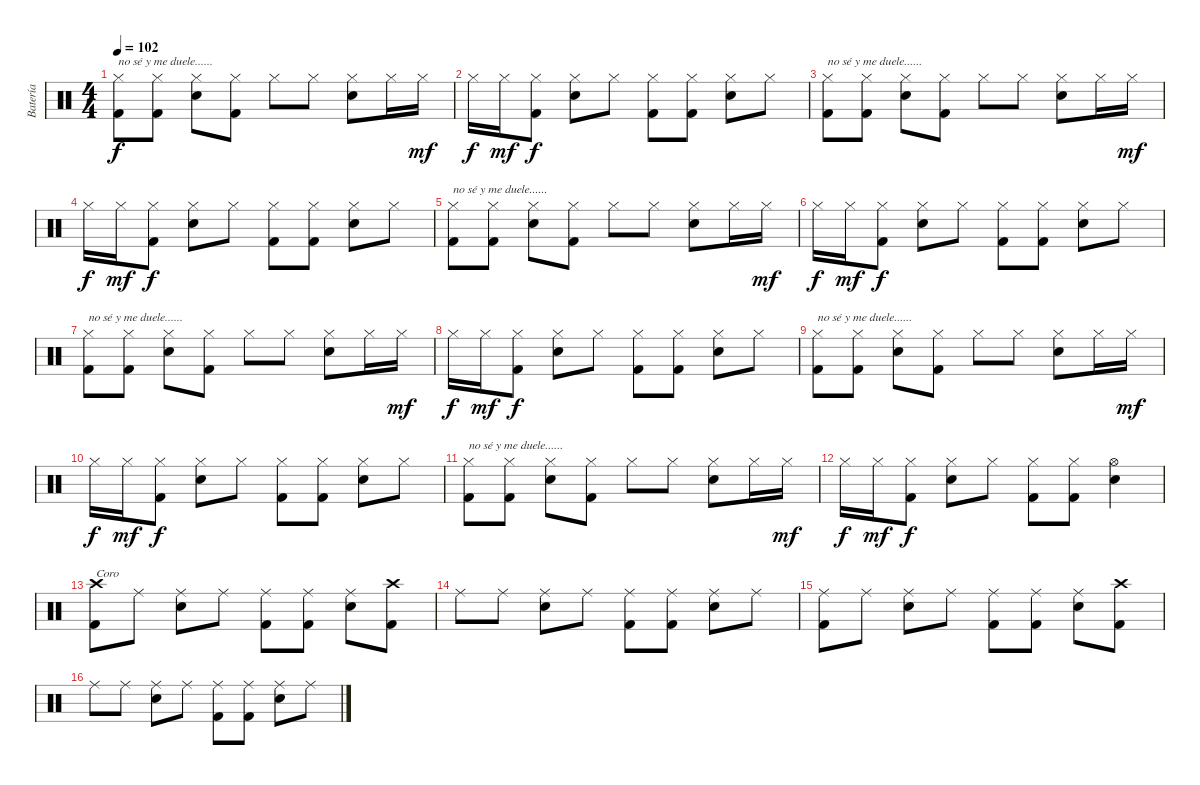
\track ("Batería" "Batería") {instrument percussion}
\staff {score}
\articulation defaults
\ts (4 4)
\tempo 102
\clef neutral
\ks c
("Hi-Hat (closed)" "Kick (hit) 2").8{txt "no sé y me duele......" dy f} ("Hi-Hat (closed)" "Kick (hit) 2").8 ("Hi-Hat (closed)" "Snare (hit) 2").8 ("Hi-Hat (closed)" "Kick (hit) 2").8 "Hi-Hat (closed)".8 "Hi-Hat (closed)".8 ("Hi-Hat (closed)" "Snare (hit) 2").8 "Hi-Hat (closed)".16 "Hi-Hat (closed)".16{dy mf} |
"Hi-Hat (closed)".16{dy f} "Hi-Hat (closed)".16{dy mf} ("Hi-Hat (closed)" "Kick (hit) 2").8{dy f} ("Hi-Hat (closed)" "Snare (hit) 2").8 "Hi-Hat (closed)".8 ("Hi-Hat (closed)" "Kick (hit) 2").8 ("Hi-Hat (closed)" "Kick (hit) 2").8 ("Hi-Hat (closed)" "Snare (hit) 2").8 "Hi-Hat (closed)".8 |
("Hi-Hat (closed)" "Kick (hit) 2").8{txt "no sé y me duele......"} ("Hi-Hat (closed)" "Kick (hit) 2").8 ("Hi-Hat (closed)" "Snare (hit) 2").8 ("Hi-Hat (closed)" "Kick (hit) 2").8 "Hi-Hat (closed)".8 "Hi-Hat (closed)".8 ("Hi-Hat (closed)" "Snare (hit) 2").8 "Hi-Hat (closed)".16 "Hi-Hat (closed)".16{dy mf} |
"Hi-Hat (closed)".16{dy f} "Hi-Hat (closed)".16{dy mf} ("Hi-Hat (closed)" "Kick (hit) 2").8{dy f} ("Hi-Hat (closed)" "Snare (hit) 2").8 "Hi-Hat (closed)".8 ("Hi-Hat (closed)" "Kick (hit) 2").8 ("Hi-Hat (closed)" "Kick (hit) 2").8 ("Hi-Hat (closed)" "Snare (hit) 2").8 "Hi-Hat (closed)".8 |
("Hi-Hat (closed)" "Kick (hit) 2").8{txt "no sé y me duele......"} ("Hi-Hat (closed)" "Kick (hit) 2").8 ("Hi-Hat (closed)" "Snare (hit) 2").8 ("Hi-Hat (closed)" "Kick (hit) 2").8 "Hi-Hat (closed)".8 "Hi-Hat (closed)".8 ("Hi-Hat (closed)" "Snare (hit) 2").8 "Hi-Hat (closed)".16 "Hi-Hat (closed)".16{dy mf} |
"Hi-Hat (closed)".16{dy f} "Hi-Hat (closed)".16{dy mf} ("Hi-Hat (closed)" "Kick (hit) 2").8{dy f} ("Hi-Hat (closed)" "Snare (hit) 2").8 "Hi-Hat (closed)".8 ("Hi-Hat (closed)" "Kick (hit) 2").8 ("Hi-Hat (closed)" "Kick (hit) 2").8 ("Hi-Hat (closed)" "Snare (hit) 2").8 "Hi-Hat (closed)".8 |
("Hi-Hat (closed)" "Kick (hit) 2").8{txt "no sé y me duele......"} ("Hi-Hat (closed)" "Kick (hit) 2").8 ("Hi-Hat (closed)" "Snare (hit) 2").8 ("Hi-Hat (closed)" "Kick (hit) 2").8 "Hi-Hat (closed)".8 "Hi-Hat (closed)".8 ("Hi-Hat (closed)" "Snare (hit) 2").8 "Hi-Hat (closed)".16 "Hi-Hat (closed)".16{dy mf} |
"Hi-Hat (closed)".16{dy f} "Hi-Hat (closed)".16{dy mf} ("Hi-Hat (closed)" "Kick (hit) 2").8{dy f} ("Hi-Hat (closed)" "Snare (hit) 2").8 "Hi-Hat (closed)".8 ("Hi-Hat (closed)" "Kick (hit) 2").8 ("Hi-Hat (closed)" "Kick (hit) 2").8 ("Hi-Hat (closed)" "Snare (hit) 2").8 "Hi-Hat (closed)".8 |
("Hi-Hat (closed)" "Kick (hit) 2").8{txt "no sé y me duele......"} ("Hi-Hat (closed)" "Kick (hit) 2").8 ("Hi-Hat (closed)" "Snare (hit) 2").8 ("Hi-Hat (closed)" "Kick (hit) 2").8 "Hi-Hat (closed)".8 "Hi-Hat (closed)".8 ("Hi-Hat (closed)" "Snare (hit) 2").8 "Hi-Hat (closed)".16 "Hi-Hat (closed)".16{dy mf} |
"Hi-Hat (closed)".16{dy f} "Hi-Hat (closed)".16{dy mf} ("Hi-Hat (closed)" "Kick (hit) 2").8{dy f} ("Hi-Hat (closed)" "Snare (hit) 2").8 "Hi-Hat (closed)".8 ("Hi-Hat (closed)" "Kick (hit) 2").8 ("Hi-Hat (closed)" "Kick (hit) 2").8 ("Hi-Hat (closed)" "Snare (hit) 2").8 "Hi-Hat (closed)".8 |
("Hi-Hat (closed)" "Kick (hit) 2").8{txt "no sé y me duele......"} ("Hi-Hat (closed)" "Kick (hit) 2").8 ("Hi-Hat (closed)" "Snare (hit) 2").8 ("Hi-Hat (closed)" "Kick (hit) 2").8 "Hi-Hat (closed)".8 "Hi-Hat (closed)".8 ("Hi-Hat (closed)" "Snare (hit) 2").8 "Hi-Hat (closed)".16 "Hi-Hat (closed)".16{dy mf} |
"Hi-Hat (closed)".16{dy f} "Hi-Hat (closed)".16{dy mf} ("Hi-Hat (closed)" "Kick (hit) 2").8{dy f} ("Hi-Hat (closed)" "Snare (hit) 2").8 "Hi-Hat (closed)".8 ("Hi-Hat (closed)" "Kick (hit) 2").8 ("Hi-Hat (closed)" "Kick (hit) 2").8 ("Hi-Hat (open)" "Snare (hit) 2").4 |
("Crash high (hit)" "Kick (hit) 2").8{txt "Coro"} "Ride (middle)".8 ("Ride (middle)" "Snare (hit) 2").8 "Ride (middle)".8 ("Ride (middle)" "Kick (hit) 2").8 ("Ride (middle)" "Kick (hit) 2").8 ("Ride (middle)" "Snare (hit) 2").8 ("Crash high (hit)" "Kick (hit) 2").8 |
"Ride (middle)".8 "Ride (middle)".8 ("Ride (middle)" "Snare (hit) 2").8 "Ride (middle)".8 ("Ride (middle)" "Kick (hit) 2").8 ("Ride (middle)" "Kick (hit) 2").8 ("Ride (middle)" "Snare (hit) 2").8 "Ride (middle)".8 |
("Ride (middle)" "Kick (hit) 2").8 "Ride (middle)".8 ("Ride (middle)" "Snare (hit) 2").8 "Ride (middle)".8 ("Ride (middle)" "Kick (hit) 2").8 ("Ride (middle)" "Kick (hit) 2").8 ("Ride (middle)" "Snare (hit) 2").8 ("Crash high (hit)" "Kick (hit) 2").8 |
"Ride (middle)".8 "Ride (middle)".8 ("Ride (middle)" "Snare (hit) 2").8 "Ride (middle)".8 ("Ride (middle)" "Kick (hit) 2").8 ("Ride (middle)" "Kick (hit) 2").8 ("Ride (middle)" "Snare (hit) 2").8 "Ride (middle)".8
